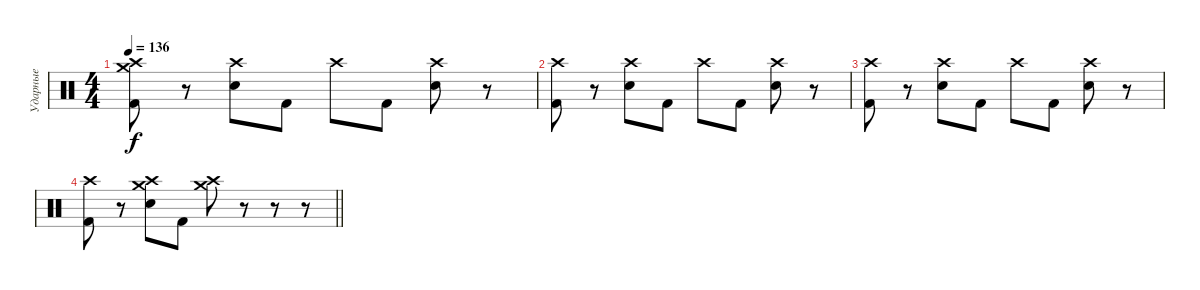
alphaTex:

\track ("Ударные" "Ударные") {instrument percussion}
\staff {score}
\articulation defaults
\ts (4 4)
\tempo 136
\clef neutral
\ks c
("Crash high (hit)" "Crash medium (hit)" "Kick (hit) 2").8{dy f} r.8 ("Crash high (hit)" "Electric Snare (hit)").8 "Kick (hit) 2".8 "Crash high (hit)".8 "Kick (hit) 2".8 ("Crash high (hit)" "Electric Snare (hit)").8 r.8 |
("Crash high (hit)" "Kick (hit) 2").8 r.8 ("Crash high (hit)" "Electric Snare (hit)").8 "Kick (hit) 2".8 "Crash high (hit)".8 "Kick (hit) 2".8 ("Crash high (hit)" "Electric Snare (hit)").8 r.8 |
("Crash high (hit)" "Kick (hit) 2").8 r.8 ("Crash high (hit)" "Electric Snare (hit)").8 "Kick (hit) 2".8 "Crash high (hit)".8 "Kick (hit) 2".8 ("Crash high (hit)" "Electric Snare (hit)").8 r.8 |
\barLineRight lightlight
("Crash high (hit)" "Kick (hit) 2").8 r.8 ("Crash high (hit)" "Crash medium (hit)" "Electric Snare (hit)").8 "Kick (hit) 2".8 ("Crash high (hit)" "Crash medium (hit)").8 r.8 r.8 r.8
